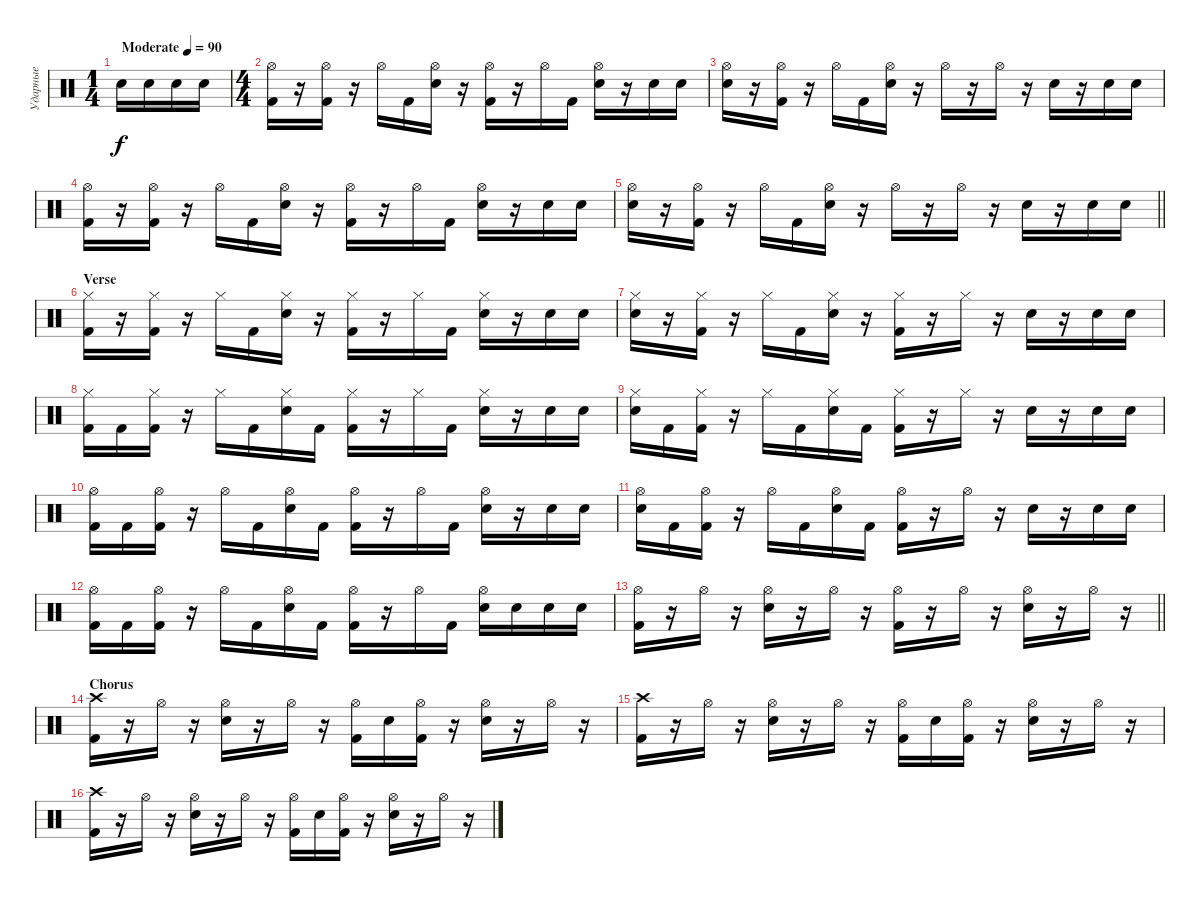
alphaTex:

\track ("Ударные" "Ударные") {instrument percussion}
\staff {score}
\articulation defaults
\ts (1 4)
\tempo (90 "Moderate")
\clef neutral
\ks c "Snare (hit) 2".16{dy f} "Snare (hit) 2".16 "Snare (hit) 2".16 "Snare (hit) 2".16
|
\ts (4 4)
("Hi-Hat (open)" "Kick (hit) 2").16 r.16 ("Hi-Hat (open)" "Kick (hit) 2").16 r.16 "Hi-Hat (open)".16 "Kick (hit) 2".16 ("Hi-Hat (open)" "Snare (hit) 2").16 r.16 ("Hi-Hat (open)" "Kick (hit) 2").16 r.16 "Hi-Hat (open)".16 "Kick (hit) 2".16 ("Hi-Hat (open)" "Snare (hit) 2").16 r.16 "Snare (hit) 2".16 "Snare (hit) 2".16 |
("Hi-Hat (open)" "Snare (hit) 2").16 r.16 ("Hi-Hat (open)" "Kick (hit) 2").16 r.16 "Hi-Hat (open)".16 "Kick (hit) 2".16 ("Hi-Hat (open)" "Snare (hit) 2").16 r.16 "Hi-Hat (open)".16 r.16 "Hi-Hat (open)".16 r.16 "Snare (hit) 2".16 r.16 "Snare (hit) 2".16 "Snare (hit) 2".16 |
("Hi-Hat (open)" "Kick (hit) 2").16 r.16 ("Hi-Hat (open)" "Kick (hit) 2").16 r.16 "Hi-Hat (open)".16 "Kick (hit) 2".16 ("Hi-Hat (open)" "Snare (hit) 2").16 r.16 ("Hi-Hat (open)" "Kick (hit) 2").16 r.16 "Hi-Hat (open)".16 "Kick (hit) 2".16 ("Hi-Hat (open)" "Snare (hit) 2").16 r.16 "Snare (hit) 2".16 "Snare (hit) 2".16 |
\barLineRight lightlight
("Hi-Hat (open)" "Snare (hit) 2").16 r.16 ("Hi-Hat (open)" "Kick (hit) 2").16 r.16 "Hi-Hat (open)".16 "Kick (hit) 2".16 ("Hi-Hat (open)" "Snare (hit) 2").16 r.16 "Hi-Hat (open)".16 r.16 "Hi-Hat (open)".16 r.16 "Snare (hit) 2".16 r.16 "Snare (hit) 2".16 "Snare (hit) 2".16 |
\section ("" "Verse")
("Hi-Hat (closed)" "Kick (hit) 2").16 r.16 ("Hi-Hat (closed)" "Kick (hit) 2").16 r.16 "Hi-Hat (closed)".16 "Kick (hit) 2".16 ("Hi-Hat (closed)" "Snare (hit) 2").16 r.16 ("Hi-Hat (closed)" "Kick (hit) 2").16 r.16 "Hi-Hat (closed)".16 "Kick (hit) 2".16 ("Hi-Hat (closed)" "Snare (hit) 2").16 r.16 "Snare (hit) 2".16 "Snare (hit) 2".16 |
("Hi-Hat (closed)" "Snare (hit) 2").16 r.16 ("Hi-Hat (closed)" "Kick (hit) 2").16 r.16 "Hi-Hat (closed)".16 "Kick (hit) 2".16 ("Hi-Hat (closed)" "Snare (hit) 2").16 r.16 ("Hi-Hat (closed)" "Kick (hit) 2").16 r.16 "Hi-Hat (closed)".16 r.16 "Snare (hit) 2".16 r.16 "Snare (hit) 2".16 "Snare (hit) 2".16 |
("Hi-Hat (closed)" "Kick (hit) 2").16 "Kick (hit) 2".16 ("Hi-Hat (closed)" "Kick (hit) 2").16 r.16 "Hi-Hat (closed)".16 "Kick (hit) 2".16 ("Hi-Hat (closed)" "Snare (hit) 2").16 "Kick (hit) 2".16 ("Hi-Hat (closed)" "Kick (hit) 2").16 r.16 "Hi-Hat (closed)".16 "Kick (hit) 2".16 ("Hi-Hat (closed)" "Snare (hit) 2").16 r.16 "Snare (hit) 2".16 "Snare (hit) 2".16 |
("Hi-Hat (closed)" "Snare (hit) 2").16 "Kick (hit) 2".16 ("Hi-Hat (closed)" "Kick (hit) 2").16 r.16 "Hi-Hat (closed)".16 "Kick (hit) 2".16 ("Hi-Hat (closed)" "Snare (hit) 2").16 "Kick (hit) 2".16 ("Hi-Hat (closed)" "Kick (hit) 2").16 r.16 "Hi-Hat (closed)".16 r.16 "Snare (hit) 2".16 r.16 "Snare (hit) 2".16 "Snare (hit) 2".16 |
("Hi-Hat (open)" "Kick (hit) 2").16 "Kick (hit) 2".16 ("Hi-Hat (open)" "Kick (hit) 2").16 r.16 "Hi-Hat (open)".16 "Kick (hit) 2".16 ("Hi-Hat (open)" "Snare (hit) 2").16 "Kick (hit) 2".16 ("Hi-Hat (open)" "Kick (hit) 2").16 r.16 "Hi-Hat (open)".16 "Kick (hit) 2".16 ("Hi-Hat (open)" "Snare (hit) 2").16 r.16 "Snare (hit) 2".16 "Snare (hit) 2".16 |
("Hi-Hat (open)" "Snare (hit) 2").16 "Kick (hit) 2".16 ("Hi-Hat (open)" "Kick (hit) 2").16 r.16 "Hi-Hat (open)".16 "Kick (hit) 2".16 ("Hi-Hat (open)" "Snare (hit) 2").16 "Kick (hit) 2".16 ("Hi-Hat (open)" "Kick (hit) 2").16 r.16 "Hi-Hat (open)".16 r.16 "Snare (hit) 2".16 r.16 "Snare (hit) 2".16 "Snare (hit) 2".16 |
("Hi-Hat (open)" "Kick (hit) 2").16 "Kick (hit) 2".16 ("Hi-Hat (open)" "Kick (hit) 2").16 r.16 "Hi-Hat (open)".16 "Kick (hit) 2".16 ("Hi-Hat (open)" "Snare (hit) 2").16 "Kick (hit) 2".16 ("Hi-Hat (open)" "Kick (hit) 2").16 r.16 "Hi-Hat (open)".16 "Kick (hit) 2".16 ("Hi-Hat (open)" "Snare (hit) 2").16 "Snare (hit) 2".16 "Snare (hit) 2".16 "Snare (hit) 2".16 |
\barLineRight lightlight
("Hi-Hat (open)" "Kick (hit) 2").16 r.16 "Hi-Hat (open)".16 r.16 ("Hi-Hat (open)" "Snare (hit) 2").16 r.16 "Hi-Hat (open)".16 r.16 ("Hi-Hat (open)" "Kick (hit) 2").16 r.16 "Hi-Hat (open)".16 r.16 ("Hi-Hat (open)" "Snare (hit) 2").16 r.16 "Hi-Hat (open)".16 r.16 |
\section ("" "Chorus")
("Crash high (hit)" "Kick (hit) 2").16 r.16 "Hi-Hat (open)".16 r.16 ("Hi-Hat (open)" "Snare (hit) 2").16 r.16 "Hi-Hat (open)".16 r.16 ("Hi-Hat (open)" "Kick (hit) 2").16 "Snare (hit) 2".16 ("Hi-Hat (open)" "Kick (hit) 2").16 r.16 ("Hi-Hat (open)" "Snare (hit) 2").16 r.16 "Hi-Hat (open)".16 r.16 |
("Crash high (hit)" "Kick (hit) 2").16 r.16 "Hi-Hat (open)".16 r.16 ("Hi-Hat (open)" "Snare (hit) 2").16 r.16 "Hi-Hat (open)".16 r.16 ("Hi-Hat (open)" "Kick (hit) 2").16 "Snare (hit) 2".16 ("Hi-Hat (open)" "Kick (hit) 2").16 r.16 ("Hi-Hat (open)" "Snare (hit) 2").16 r.16 "Hi-Hat (open)".16 r.16 |
("Crash high (hit)" "Kick (hit) 2").16 r.16 "Hi-Hat (open)".16 r.16 ("Hi-Hat (open)" "Snare (hit) 2").16 r.16 "Hi-Hat (open)".16 r.16 ("Hi-Hat (open)" "Kick (hit) 2").16 "Snare (hit) 2".16 ("Hi-Hat (open)" "Kick (hit) 2").16 r.16 ("Hi-Hat (open)" "Snare (hit) 2").16 r.16 "Hi-Hat (open)".16 r.16
